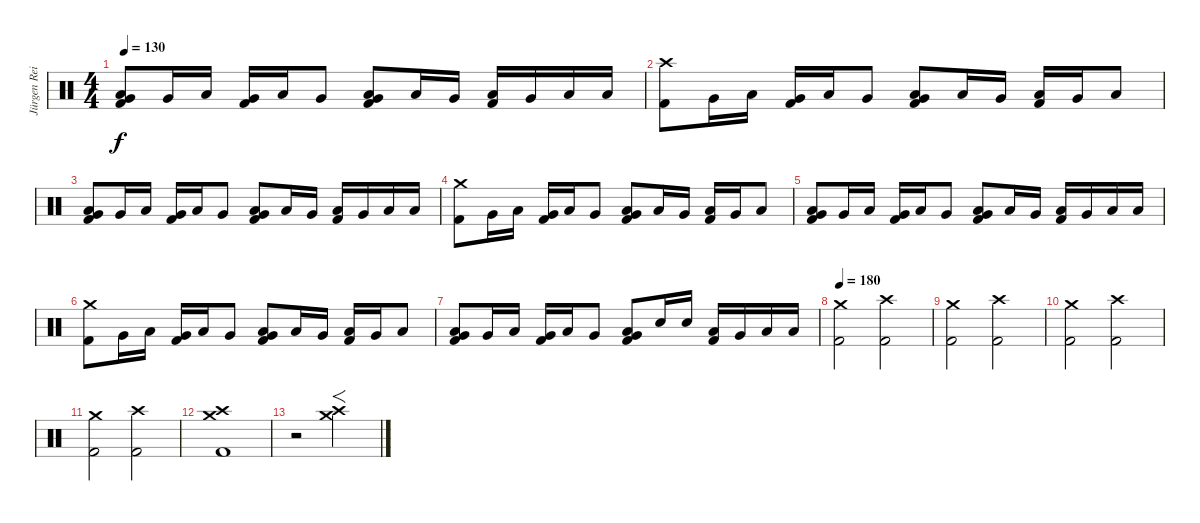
\track ("Jürgen Reil" "Jürgen Rei") {instrument percussion}
\staff {score}
\articulation defaults
\ts (4 4)
\tempo 130
\clef neutral
\ks c
("Low Tom (hit)" "Very Low Tom (hit)" "Kick (hit) 2").8{dy f} "Very Low Tom (hit)".16 "Low Tom (hit)".16 ("Very Low Tom (hit)" "Kick (hit) 2").16 "Low Tom (hit)".16 "Very Low Tom (hit)".8 ("Low Tom (hit)" "Very Low Tom (hit)" "Kick (hit) 2").8 "Low Tom (hit)".16 "Very Low Tom (hit)".16 ("Low Tom (hit)" "Kick (hit) 2").16 "Very Low Tom (hit)".16 "Low Tom (hit)".16 "Low Tom (hit)".16 |
("Crash high (hit)" "Kick (hit) 2").8 "Very Low Tom (hit)".16 "Low Tom (hit)".16 ("Very Low Tom (hit)" "Kick (hit) 2").16 "Low Tom (hit)".16 "Very Low Tom (hit)".8 ("Low Tom (hit)" "Very Low Tom (hit)" "Kick (hit) 2").8 "Low Tom (hit)".16 "Very Low Tom (hit)".16 ("Low Tom (hit)" "Kick (hit) 2").16 "Very Low Tom (hit)".16 "Low Tom (hit)".8 |
("Low Tom (hit)" "Very Low Tom (hit)" "Kick (hit) 2").8 "Very Low Tom (hit)".16 "Low Tom (hit)".16 ("Very Low Tom (hit)" "Kick (hit) 2").16 "Low Tom (hit)".16 "Very Low Tom (hit)".8 ("Low Tom (hit)" "Very Low Tom (hit)" "Kick (hit) 2").8 "Low Tom (hit)".16 "Very Low Tom (hit)".16 ("Low Tom (hit)" "Kick (hit) 2").16 "Very Low Tom (hit)".16 "Low Floor Tom (hit)".16 "Low Floor Tom (hit)".16 |
("Crash medium (hit)" "Kick (hit) 2").8 "Very Low Tom (hit)".16 "Low Tom (hit)".16 ("Very Low Tom (hit)" "Kick (hit) 2").16 "Low Tom (hit)".16 "Very Low Tom (hit)".8 ("Low Tom (hit)" "Very Low Tom (hit)" "Kick (hit) 2").8 "Low Tom (hit)".16 "Very Low Tom (hit)".16 ("Low Tom (hit)" "Kick (hit) 2").16 "Very Low Tom (hit)".16 "Low Tom (hit)".8 |
("Low Tom (hit)" "Very Low Tom (hit)" "Kick (hit) 2").8 "Very Low Tom (hit)".16 "Low Tom (hit)".16 ("Very Low Tom (hit)" "Kick (hit) 2").16 "Low Tom (hit)".16 "Very Low Tom (hit)".8 ("Low Tom (hit)" "Very Low Tom (hit)" "Kick (hit) 2").8 "Low Tom (hit)".16 "Very Low Tom (hit)".16 ("Low Tom (hit)" "Kick (hit) 2").16 "Very Low Tom (hit)".16 "Low Tom (hit)".16 "Low Tom (hit)".16 |
("Crash medium (hit)" "Kick (hit) 2").8 "Very Low Tom (hit)".16 "Low Tom (hit)".16 ("Very Low Tom (hit)" "Kick (hit) 2").16 "Low Tom (hit)".16 "Very Low Tom (hit)".8 ("Low Tom (hit)" "Very Low Tom (hit)" "Kick (hit) 2").8 "Low Tom (hit)".16 "Very Low Tom (hit)".16 ("Low Tom (hit)" "Kick (hit) 2").16 "Very Low Tom (hit)".16 "Low Tom (hit)".8 |
("Low Tom (hit)" "Very Low Tom (hit)" "Kick (hit) 2").8 "Very Low Tom (hit)".16 "Low Tom (hit)".16 ("Very Low Tom (hit)" "Kick (hit) 2").16 "Low Tom (hit)".16 "Very Low Tom (hit)".8 ("Low Tom (hit)" "Very Low Tom (hit)" "Kick (hit) 2").8 "Electric Snare (hit)".16 "Electric Snare (hit)".16 ("Low Tom (hit)" "Kick (hit) 2").16 "Very Low Tom (hit)".16 "Low Floor Tom (hit)".16 "Low Floor Tom (hit)".16 |
\tempo 180
("Crash medium (hit)" "Kick (hit) 2").2 ("Crash high (hit)" "Kick (hit) 2").2 |
("Crash medium (hit)" "Kick (hit) 2").2 ("Crash high (hit)" "Kick (hit) 2").2 |
("Crash medium (hit)" "Kick (hit) 2").2 ("Crash high (hit)" "Kick (hit) 2").2 |
("Crash medium (hit)" "Kick (hit) 2").2 ("Crash high (hit)" "Kick (hit) 2").2 |
("Crash medium (hit)" "Crash high (hit)" "Kick (hit) 2").1 |
r.2 ("Crash medium (hit)" "Crash high (hit)").2{f}
